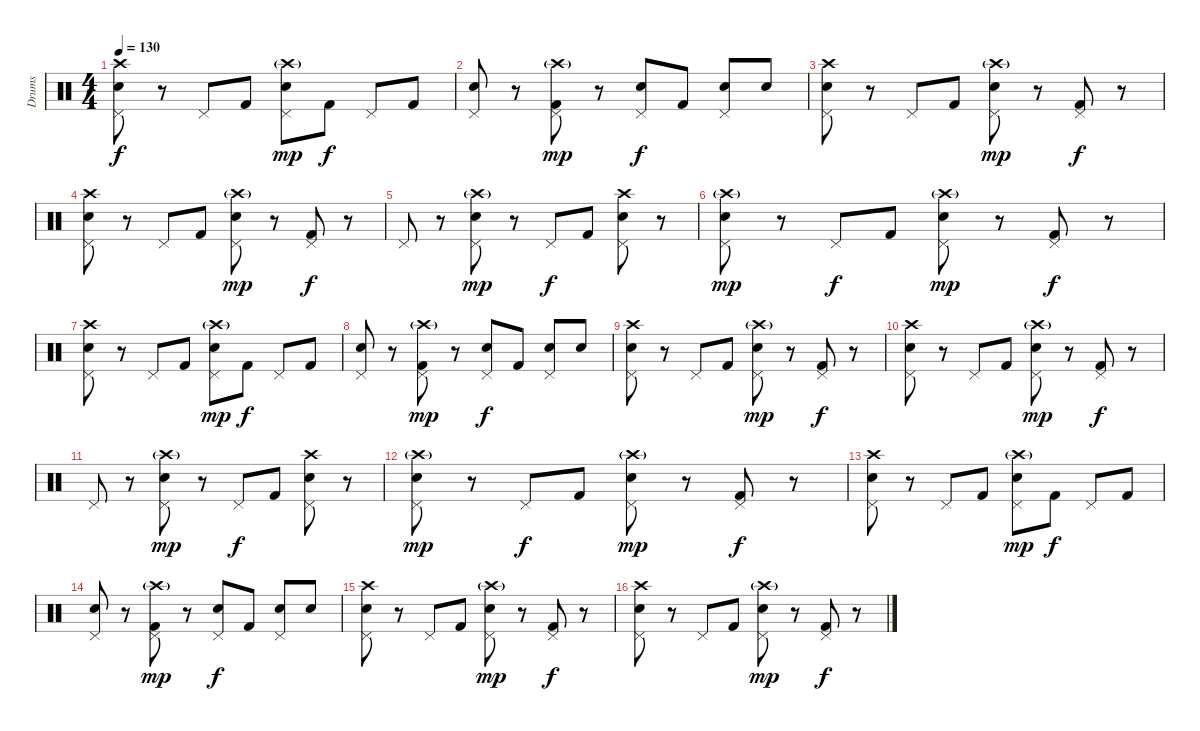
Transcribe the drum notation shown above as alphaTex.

\track ("Drums" "Drums") {instrument percussion}
\staff {score}
\articulation defaults
\ts (4 4)
\tempo 130
\clef neutral
\ks c
("Crash high (hit)" "Snare (hit) 2" "Pedal Hi-Hat (hit)").8{dy f} r.8 "Pedal Hi-Hat (hit)".8 "Kick (hit) 2".8 ("Crash high (hit)"{g} "Snare (hit) 2" "Pedal Hi-Hat (hit)").8{dy mp} "Kick (hit) 2".8{dy f} "Pedal Hi-Hat (hit)".8 "Kick (hit) 2".8 |
("Snare (hit) 2" "Pedal Hi-Hat (hit)").8 r.8 ("Crash high (hit)"{g} "Pedal Hi-Hat (hit)" "Kick (hit) 2").8{dy mp} r.8 ("Snare (hit) 2" "Pedal Hi-Hat (hit)").8{dy f} "Kick (hit) 2".8 ("Snare (hit) 2" "Pedal Hi-Hat (hit)").8 "Snare (hit) 2".8 |
("Crash high (hit)" "Snare (hit) 2" "Pedal Hi-Hat (hit)").8 r.8 "Pedal Hi-Hat (hit)".8 "Kick (hit) 2".8 ("Crash high (hit)"{g} "Snare (hit) 2" "Pedal Hi-Hat (hit)").8{dy mp} r.8 ("Pedal Hi-Hat (hit)" "Kick (hit) 2").8{dy f} r.8 |
("Crash high (hit)" "Snare (hit) 2" "Pedal Hi-Hat (hit)").8 r.8 "Pedal Hi-Hat (hit)".8 "Kick (hit) 2".8 ("Crash high (hit)"{g} "Snare (hit) 2" "Pedal Hi-Hat (hit)").8{dy mp} r.8 ("Pedal Hi-Hat (hit)" "Kick (hit) 2").8{dy f} r.8 |
"Pedal Hi-Hat (hit)".8 r.8 ("Crash high (hit)"{g} "Snare (hit) 2" "Pedal Hi-Hat (hit)").8{dy mp} r.8 "Pedal Hi-Hat (hit)".8{dy f} "Kick (hit) 2".8 ("Crash high (hit)" "Snare (hit) 2" "Pedal Hi-Hat (hit)").8 r.8 |
("Crash high (hit)"{g} "Snare (hit) 2" "Pedal Hi-Hat (hit)").8{dy mp} r.8 "Pedal Hi-Hat (hit)".8{dy f} "Kick (hit) 2".8 ("Crash high (hit)"{g} "Snare (hit) 2" "Pedal Hi-Hat (hit)").8{dy mp} r.8 ("Pedal Hi-Hat (hit)" "Kick (hit) 2").8{dy f} r.8 |
("Crash high (hit)" "Snare (hit) 2" "Pedal Hi-Hat (hit)").8 r.8 "Pedal Hi-Hat (hit)".8 "Kick (hit) 2".8 ("Crash high (hit)"{g} "Snare (hit) 2" "Pedal Hi-Hat (hit)").8{dy mp} "Kick (hit) 2".8{dy f} "Pedal Hi-Hat (hit)".8 "Kick (hit) 2".8 |
("Snare (hit) 2" "Pedal Hi-Hat (hit)").8 r.8 ("Crash high (hit)"{g} "Pedal Hi-Hat (hit)" "Kick (hit) 2").8{dy mp} r.8 ("Snare (hit) 2" "Pedal Hi-Hat (hit)").8{dy f} "Kick (hit) 2".8 ("Snare (hit) 2" "Pedal Hi-Hat (hit)").8 "Snare (hit) 2".8 |
("Crash high (hit)" "Snare (hit) 2" "Pedal Hi-Hat (hit)").8 r.8 "Pedal Hi-Hat (hit)".8 "Kick (hit) 2".8 ("Crash high (hit)"{g} "Snare (hit) 2" "Pedal Hi-Hat (hit)").8{dy mp} r.8 ("Pedal Hi-Hat (hit)" "Kick (hit) 2").8{dy f} r.8 |
("Crash high (hit)" "Snare (hit) 2" "Pedal Hi-Hat (hit)").8 r.8 "Pedal Hi-Hat (hit)".8 "Kick (hit) 2".8 ("Crash high (hit)"{g} "Snare (hit) 2" "Pedal Hi-Hat (hit)").8{dy mp} r.8 ("Pedal Hi-Hat (hit)" "Kick (hit) 2").8{dy f} r.8 |
"Pedal Hi-Hat (hit)".8 r.8 ("Crash high (hit)"{g} "Snare (hit) 2" "Pedal Hi-Hat (hit)").8{dy mp} r.8 "Pedal Hi-Hat (hit)".8{dy f} "Kick (hit) 2".8 ("Crash high (hit)" "Snare (hit) 2" "Pedal Hi-Hat (hit)").8 r.8 |
("Crash high (hit)"{g} "Snare (hit) 2" "Pedal Hi-Hat (hit)").8{dy mp} r.8 "Pedal Hi-Hat (hit)".8{dy f} "Kick (hit) 2".8 ("Crash high (hit)"{g} "Snare (hit) 2" "Pedal Hi-Hat (hit)").8{dy mp} r.8 ("Pedal Hi-Hat (hit)" "Kick (hit) 2").8{dy f} r.8 |
("Crash high (hit)" "Snare (hit) 2" "Pedal Hi-Hat (hit)").8 r.8 "Pedal Hi-Hat (hit)".8 "Kick (hit) 2".8 ("Crash high (hit)"{g} "Snare (hit) 2" "Pedal Hi-Hat (hit)").8{dy mp} "Kick (hit) 2".8{dy f} "Pedal Hi-Hat (hit)".8 "Kick (hit) 2".8 |
("Snare (hit) 2" "Pedal Hi-Hat (hit)").8 r.8 ("Crash high (hit)"{g} "Pedal Hi-Hat (hit)" "Kick (hit) 2").8{dy mp} r.8 ("Snare (hit) 2" "Pedal Hi-Hat (hit)").8{dy f} "Kick (hit) 2".8 ("Snare (hit) 2" "Pedal Hi-Hat (hit)").8 "Snare (hit) 2".8 |
("Crash high (hit)" "Snare (hit) 2" "Pedal Hi-Hat (hit)").8 r.8 "Pedal Hi-Hat (hit)".8 "Kick (hit) 2".8 ("Crash high (hit)"{g} "Snare (hit) 2" "Pedal Hi-Hat (hit)").8{dy mp} r.8 ("Pedal Hi-Hat (hit)" "Kick (hit) 2").8{dy f} r.8 |
("Crash high (hit)" "Snare (hit) 2" "Pedal Hi-Hat (hit)").8 r.8 "Pedal Hi-Hat (hit)".8 "Kick (hit) 2".8 ("Crash high (hit)"{g} "Snare (hit) 2" "Pedal Hi-Hat (hit)").8{dy mp} r.8 ("Pedal Hi-Hat (hit)" "Kick (hit) 2").8{dy f} r.8
